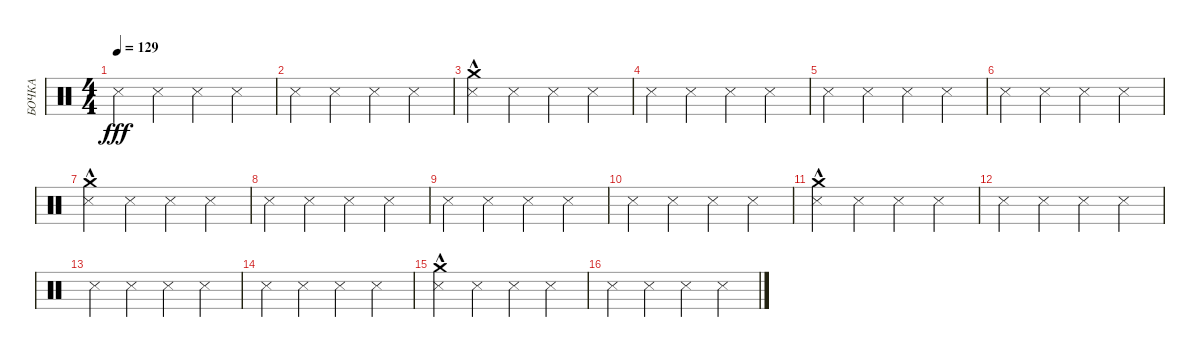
\track ("БОЧКА" "БОЧКА") {instrument percussion}
\staff {score}
\articulation defaults
\ts (4 4)
\tempo 129
\clef neutral
\ks c "Metronome (hit)".4{dy fff} "Metronome (hit)".4 "Metronome (hit)".4 "Metronome (hit)".4
|
"Metronome (hit)".4 "Metronome (hit)".4 "Metronome (hit)".4 "Metronome (hit)".4 |
("Metronome (hit)" "Crash medium (hit)"{hac}).4 "Metronome (hit)".4 "Metronome (hit)".4 "Metronome (hit)".4 |
"Metronome (hit)".4 "Metronome (hit)".4 "Metronome (hit)".4 "Metronome (hit)".4 |
"Metronome (hit)".4 "Metronome (hit)".4 "Metronome (hit)".4 "Metronome (hit)".4 |
"Metronome (hit)".4 "Metronome (hit)".4 "Metronome (hit)".4 "Metronome (hit)".4 |
("Metronome (hit)" "Crash medium (hit)"{hac}).4 "Metronome (hit)".4 "Metronome (hit)".4 "Metronome (hit)".4 |
"Metronome (hit)".4 "Metronome (hit)".4 "Metronome (hit)".4 "Metronome (hit)".4 |
"Metronome (hit)".4 "Metronome (hit)".4 "Metronome (hit)".4 "Metronome (hit)".4 |
"Metronome (hit)".4 "Metronome (hit)".4 "Metronome (hit)".4 "Metronome (hit)".4 |
("Metronome (hit)" "Crash medium (hit)"{hac}).4 "Metronome (hit)".4 "Metronome (hit)".4 "Metronome (hit)".4 |
"Metronome (hit)".4 "Metronome (hit)".4 "Metronome (hit)".4 "Metronome (hit)".4 |
"Metronome (hit)".4 "Metronome (hit)".4 "Metronome (hit)".4 "Metronome (hit)".4 |
"Metronome (hit)".4 "Metronome (hit)".4 "Metronome (hit)".4 "Metronome (hit)".4 |
("Metronome (hit)" "Crash medium (hit)"{hac}).4 "Metronome (hit)".4 "Metronome (hit)".4 "Metronome (hit)".4 |
"Metronome (hit)".4 "Metronome (hit)".4 "Metronome (hit)".4 "Metronome (hit)".4
